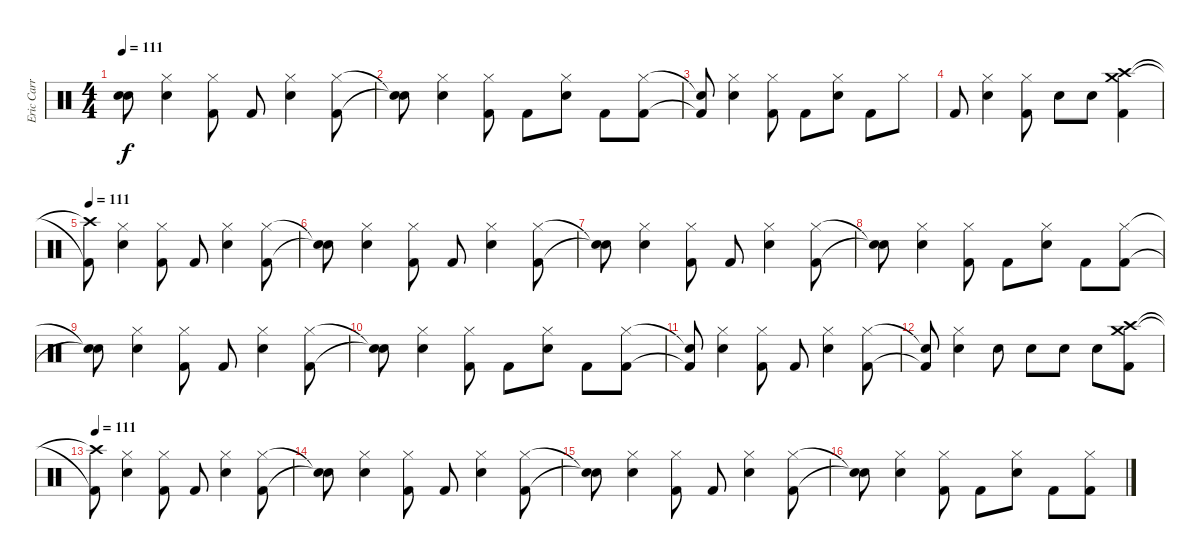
\track ("Eric Carr" "Eric Carr") {instrument percussion}
\staff {score}
\articulation defaults
\ts (4 4)
\tempo 111
\clef neutral
\ks c
("Snare (hit)"{t} "Snare (hit)"{t}).8{dy f} ("Hi-Hat (closed)" "Snare (hit) 2").4 ("Hi-Hat (closed)" "Kick (hit) 2").8 "Kick (hit) 2".8 ("Hi-Hat (closed)" "Snare (hit) 2").4 ("Hi-Hat (closed)" "Kick (hit) 2").8 |
("Snare (hit)"{t} "Snare (hit)"{t}).8 ("Hi-Hat (closed)" "Snare (hit) 2").4 ("Hi-Hat (closed)" "Kick (hit) 2").8 "Kick (hit) 2".8 ("Hi-Hat (closed)" "Snare (hit) 2").8 "Kick (hit) 2".8 ("Hi-Hat (closed)" "Kick (hit) 2").8 |
("Snare (hit)"{t} "Kick (hit) 2"{t}).8 ("Hi-Hat (closed)" "Snare (hit) 2").4 ("Hi-Hat (closed)" "Kick (hit) 2").8 "Kick (hit) 2".8 ("Hi-Hat (closed)" "Snare (hit) 2").8 "Kick (hit) 2".8 "Hi-Hat (closed)".8 |
"Kick (hit) 2".8 ("Hi-Hat (closed)" "Snare (hit) 2").4 ("Hi-Hat (closed)" "Kick (hit) 2").8 "Snare (hit) 2".8 "Snare (hit) 2".8 ("Crash medium (hit)" "Crash high (hit)" "Kick (hit) 2").4 |
\tempo 111
("Crash high (hit)"{t} "Kick (hit) 2"{t}).8 ("Hi-Hat (closed)" "Snare (hit) 2").4 ("Hi-Hat (closed)" "Kick (hit) 2").8 "Kick (hit) 2".8 ("Hi-Hat (closed)" "Snare (hit) 2").4 ("Hi-Hat (closed)" "Kick (hit) 2").8 |
("Snare (hit)"{t} "Snare (hit)"{t}).8 ("Hi-Hat (closed)" "Snare (hit) 2").4 ("Hi-Hat (closed)" "Kick (hit) 2").8 "Kick (hit) 2".8 ("Hi-Hat (closed)" "Snare (hit) 2").4 ("Hi-Hat (closed)" "Kick (hit) 2").8 |
("Snare (hit)"{t} "Snare (hit)"{t}).8 ("Hi-Hat (closed)" "Snare (hit) 2").4 ("Hi-Hat (closed)" "Kick (hit) 2").8 "Kick (hit) 2".8 ("Hi-Hat (closed)" "Snare (hit) 2").4 ("Hi-Hat (closed)" "Kick (hit) 2").8 |
("Snare (hit)"{t} "Snare (hit)"{t}).8 ("Hi-Hat (closed)" "Snare (hit) 2").4 ("Hi-Hat (closed)" "Kick (hit) 2").8 "Kick (hit) 2".8 ("Hi-Hat (closed)" "Snare (hit) 2").8 "Kick (hit) 2".8 ("Hi-Hat (closed)" "Kick (hit) 2").8 |
("Snare (hit)"{t} "Snare (hit)"{t}).8 ("Hi-Hat (closed)" "Snare (hit) 2").4 ("Hi-Hat (closed)" "Kick (hit) 2").8 "Kick (hit) 2".8 ("Hi-Hat (closed)" "Snare (hit) 2").4 ("Hi-Hat (closed)" "Kick (hit) 2").8 |
("Snare (hit)"{t} "Snare (hit)"{t}).8 ("Hi-Hat (closed)" "Snare (hit) 2").4 ("Hi-Hat (closed)" "Kick (hit) 2").8 "Kick (hit) 2".8 ("Hi-Hat (closed)" "Snare (hit) 2").8 "Kick (hit) 2".8 ("Hi-Hat (closed)" "Kick (hit) 2").8 |
("Snare (hit)"{t} "Kick (hit) 2"{t}).8 ("Hi-Hat (closed)" "Snare (hit) 2").4 ("Hi-Hat (closed)" "Kick (hit) 2").8 "Kick (hit) 2".8 ("Hi-Hat (closed)" "Snare (hit) 2").4 ("Hi-Hat (closed)" "Kick (hit) 2").8 |
("Snare (hit)"{t} "Kick (hit) 2"{t}).8 ("Hi-Hat (closed)" "Snare (hit) 2").4 "Snare (hit) 2".8 "Snare (hit) 2".8 "Snare (hit) 2".8 "Snare (hit) 2".8 ("Crash medium (hit)" "Crash high (hit)" "Kick (hit) 2").8 |
\tempo 111
("Crash high (hit)"{t} "Kick (hit) 2"{t}).8{volume 7} ("Hi-Hat (closed)" "Snare (hit) 2").4 ("Hi-Hat (closed)" "Kick (hit) 2").8 "Kick (hit) 2".8 ("Hi-Hat (closed)" "Snare (hit) 2").4 ("Hi-Hat (closed)" "Kick (hit) 2").8 |
("Snare (hit)"{t} "Snare (hit)"{t}).8 ("Hi-Hat (closed)" "Snare (hit) 2").4 ("Hi-Hat (closed)" "Kick (hit) 2").8 "Kick (hit) 2".8 ("Hi-Hat (closed)" "Snare (hit) 2").4 ("Hi-Hat (closed)" "Kick (hit) 2").8 |
("Snare (hit)"{t} "Snare (hit)"{t}).8 ("Hi-Hat (closed)" "Snare (hit) 2").4 ("Hi-Hat (closed)" "Kick (hit) 2").8 "Kick (hit) 2".8 ("Hi-Hat (closed)" "Snare (hit) 2").4 ("Hi-Hat (closed)" "Kick (hit) 2").8 |
("Snare (hit)"{t} "Snare (hit)"{t}).8 ("Hi-Hat (closed)" "Snare (hit) 2").4 ("Hi-Hat (closed)" "Kick (hit) 2").8 "Kick (hit) 2".8 ("Hi-Hat (closed)" "Snare (hit) 2").8 "Kick (hit) 2".8 ("Hi-Hat (closed)" "Kick (hit) 2").8
